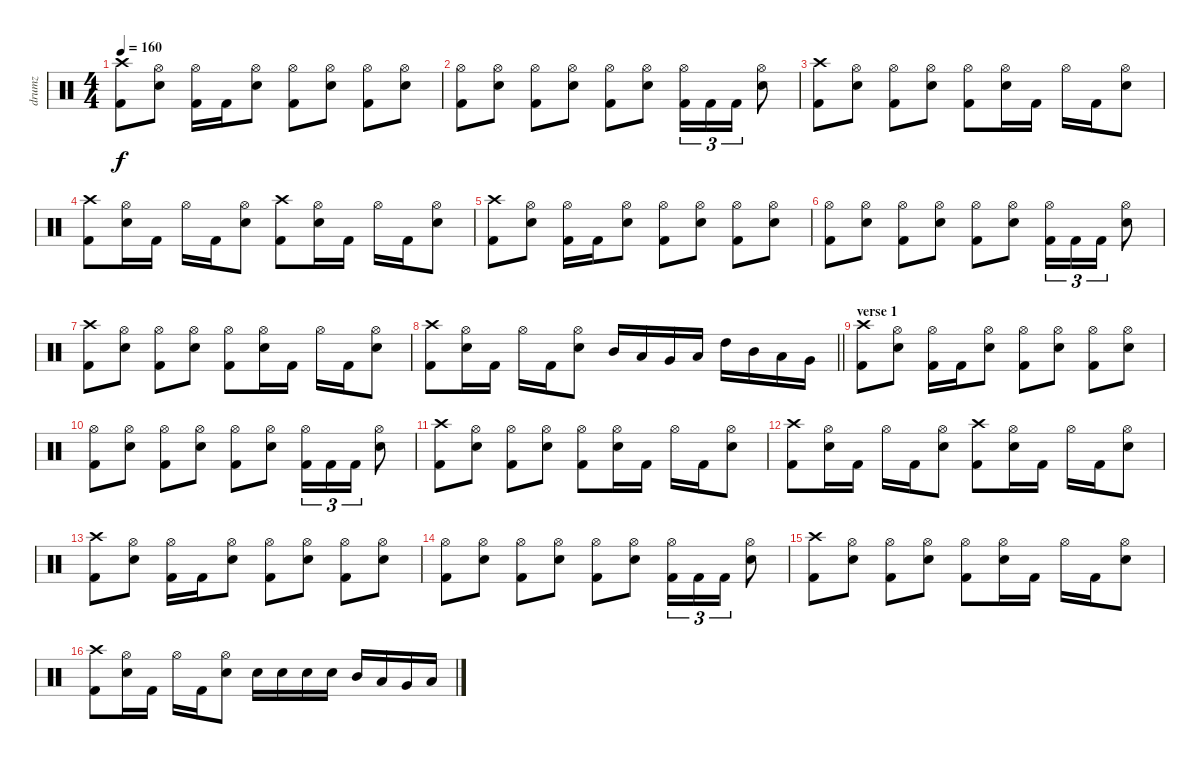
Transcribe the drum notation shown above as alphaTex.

\track ("drumz" "drumz") {instrument percussion}
\staff {score}
\articulation defaults
\ts (4 4)
\tempo 160
\clef neutral
\ks c
("Crash high (hit)" "Kick (hit) 2").8{dy f} ("Hi-Hat (open)" "Electric Snare (hit)").8 ("Hi-Hat (open)" "Kick (hit) 2").16 "Kick (hit) 2".16 ("Hi-Hat (open)" "Electric Snare (hit)").8 ("Hi-Hat (open)" "Kick (hit) 2").8 ("Hi-Hat (open)" "Electric Snare (hit)").8 ("Hi-Hat (open)" "Kick (hit) 2").8 ("Hi-Hat (open)" "Electric Snare (hit)").8 |
("Hi-Hat (open)" "Kick (hit) 2").8 ("Hi-Hat (open)" "Electric Snare (hit)").8 ("Hi-Hat (open)" "Kick (hit) 2").8 ("Hi-Hat (open)" "Electric Snare (hit)").8 ("Hi-Hat (open)" "Kick (hit) 2").8 ("Hi-Hat (open)" "Electric Snare (hit)").8 ("Hi-Hat (open)" "Kick (hit) 2").16{tu (3 2)} "Kick (hit) 2".16{tu (3 2)} "Kick (hit) 2".16{tu (3 2)} ("Hi-Hat (open)" "Electric Snare (hit)").8 |
("Crash high (hit)" "Kick (hit) 2").8 ("Hi-Hat (open)" "Electric Snare (hit)").8 ("Hi-Hat (open)" "Kick (hit) 2").8 ("Hi-Hat (open)" "Electric Snare (hit)").8 ("Hi-Hat (open)" "Kick (hit) 2").8 ("Hi-Hat (open)" "Electric Snare (hit)").16 "Kick (hit) 2".16 "Hi-Hat (open)".16 "Kick (hit) 2".16 ("Hi-Hat (open)" "Electric Snare (hit)").8 |
("Crash high (hit)" "Kick (hit) 2").8 ("Hi-Hat (open)" "Electric Snare (hit)").16 "Kick (hit) 2".16 "Hi-Hat (open)".16 "Kick (hit) 2".16 ("Hi-Hat (open)" "Electric Snare (hit)").8 ("Crash high (hit)" "Kick (hit) 2").8 ("Hi-Hat (open)" "Electric Snare (hit)").16 "Kick (hit) 2".16 "Hi-Hat (open)".16 "Kick (hit) 2".16 ("Hi-Hat (open)" "Electric Snare (hit)").8 |
("Crash high (hit)" "Kick (hit) 2").8 ("Hi-Hat (open)" "Electric Snare (hit)").8 ("Hi-Hat (open)" "Kick (hit) 2").16 "Kick (hit) 2".16 ("Hi-Hat (open)" "Electric Snare (hit)").8 ("Hi-Hat (open)" "Kick (hit) 2").8 ("Hi-Hat (open)" "Electric Snare (hit)").8 ("Hi-Hat (open)" "Kick (hit) 2").8 ("Hi-Hat (open)" "Electric Snare (hit)").8 |
("Hi-Hat (open)" "Kick (hit) 2").8 ("Hi-Hat (open)" "Electric Snare (hit)").8 ("Hi-Hat (open)" "Kick (hit) 2").8 ("Hi-Hat (open)" "Electric Snare (hit)").8 ("Hi-Hat (open)" "Kick (hit) 2").8 ("Hi-Hat (open)" "Electric Snare (hit)").8 ("Hi-Hat (open)" "Kick (hit) 2").16{tu (3 2)} "Kick (hit) 2".16{tu (3 2)} "Kick (hit) 2".16{tu (3 2)} ("Hi-Hat (open)" "Electric Snare (hit)").8 |
("Crash high (hit)" "Kick (hit) 2").8 ("Hi-Hat (open)" "Electric Snare (hit)").8 ("Hi-Hat (open)" "Kick (hit) 2").8 ("Hi-Hat (open)" "Electric Snare (hit)").8 ("Hi-Hat (open)" "Kick (hit) 2").8 ("Hi-Hat (open)" "Electric Snare (hit)").16 "Kick (hit) 2".16 "Hi-Hat (open)".16 "Kick (hit) 2".16 ("Hi-Hat (open)" "Electric Snare (hit)").8 |
\barLineRight lightlight
("Crash high (hit)" "Kick (hit) 2").8 ("Hi-Hat (open)" "Electric Snare (hit)").16 "Kick (hit) 2".16 "Hi-Hat (open)".16 "Kick (hit) 2".16 ("Hi-Hat (open)" "Electric Snare (hit)").8 "Mid Tom (hit)".16 "Low Tom (hit)".16 "Very Low Tom (hit)".16 "Low Floor Tom (hit)".16 "High Tom (hit)".16 "Mid Tom (hit)".16 "Low Tom (hit)".16 "Very Low Tom (hit)".16 |
\section ("" "verse 1")
("Crash high (hit)" "Kick (hit) 2").8 ("Hi-Hat (open)" "Electric Snare (hit)").8 ("Hi-Hat (open)" "Kick (hit) 2").16 "Kick (hit) 2".16 ("Hi-Hat (open)" "Electric Snare (hit)").8 ("Hi-Hat (open)" "Kick (hit) 2").8 ("Hi-Hat (open)" "Electric Snare (hit)").8 ("Hi-Hat (open)" "Kick (hit) 2").8 ("Hi-Hat (open)" "Electric Snare (hit)").8 |
("Hi-Hat (open)" "Kick (hit) 2").8 ("Hi-Hat (open)" "Electric Snare (hit)").8 ("Hi-Hat (open)" "Kick (hit) 2").8 ("Hi-Hat (open)" "Electric Snare (hit)").8 ("Hi-Hat (open)" "Kick (hit) 2").8 ("Hi-Hat (open)" "Electric Snare (hit)").8 ("Hi-Hat (open)" "Kick (hit) 2").16{tu (3 2)} "Kick (hit) 2".16{tu (3 2)} "Kick (hit) 2".16{tu (3 2)} ("Hi-Hat (open)" "Electric Snare (hit)").8 |
("Crash high (hit)" "Kick (hit) 2").8 ("Hi-Hat (open)" "Electric Snare (hit)").8 ("Hi-Hat (open)" "Kick (hit) 2").8 ("Hi-Hat (open)" "Electric Snare (hit)").8 ("Hi-Hat (open)" "Kick (hit) 2").8 ("Hi-Hat (open)" "Electric Snare (hit)").16 "Kick (hit) 2".16 "Hi-Hat (open)".16 "Kick (hit) 2".16 ("Hi-Hat (open)" "Electric Snare (hit)").8 |
("Crash high (hit)" "Kick (hit) 2").8 ("Hi-Hat (open)" "Electric Snare (hit)").16 "Kick (hit) 2".16 "Hi-Hat (open)".16 "Kick (hit) 2".16 ("Hi-Hat (open)" "Electric Snare (hit)").8 ("Crash high (hit)" "Kick (hit) 2").8 ("Hi-Hat (open)" "Electric Snare (hit)").16 "Kick (hit) 2".16 "Hi-Hat (open)".16 "Kick (hit) 2".16 ("Hi-Hat (open)" "Electric Snare (hit)").8 |
("Crash high (hit)" "Kick (hit) 2").8 ("Hi-Hat (open)" "Electric Snare (hit)").8 ("Hi-Hat (open)" "Kick (hit) 2").16 "Kick (hit) 2".16 ("Hi-Hat (open)" "Electric Snare (hit)").8 ("Hi-Hat (open)" "Kick (hit) 2").8 ("Hi-Hat (open)" "Electric Snare (hit)").8 ("Hi-Hat (open)" "Kick (hit) 2").8 ("Hi-Hat (open)" "Electric Snare (hit)").8 |
("Hi-Hat (open)" "Kick (hit) 2").8 ("Hi-Hat (open)" "Electric Snare (hit)").8 ("Hi-Hat (open)" "Kick (hit) 2").8 ("Hi-Hat (open)" "Electric Snare (hit)").8 ("Hi-Hat (open)" "Kick (hit) 2").8 ("Hi-Hat (open)" "Electric Snare (hit)").8 ("Hi-Hat (open)" "Kick (hit) 2").16{tu (3 2)} "Kick (hit) 2".16{tu (3 2)} "Kick (hit) 2".16{tu (3 2)} ("Hi-Hat (open)" "Electric Snare (hit)").8 |
("Crash high (hit)" "Kick (hit) 2").8 ("Hi-Hat (open)" "Electric Snare (hit)").8 ("Hi-Hat (open)" "Kick (hit) 2").8 ("Hi-Hat (open)" "Electric Snare (hit)").8 ("Hi-Hat (open)" "Kick (hit) 2").8 ("Hi-Hat (open)" "Electric Snare (hit)").16 "Kick (hit) 2".16 "Hi-Hat (open)".16 "Kick (hit) 2".16 ("Hi-Hat (open)" "Electric Snare (hit)").8 |
("Crash high (hit)" "Kick (hit) 2").8 ("Hi-Hat (open)" "Electric Snare (hit)").16 "Kick (hit) 2".16 "Hi-Hat (open)".16 "Kick (hit) 2".16 ("Hi-Hat (open)" "Electric Snare (hit)").8 "Electric Snare (hit)".16 "Electric Snare (hit)".16 "Electric Snare (hit)".16 "Electric Snare (hit)".16 "Mid Tom (hit)".16 "Low Tom (hit)".16 "Very Low Tom (hit)".16 "Low Floor Tom (hit)".16
